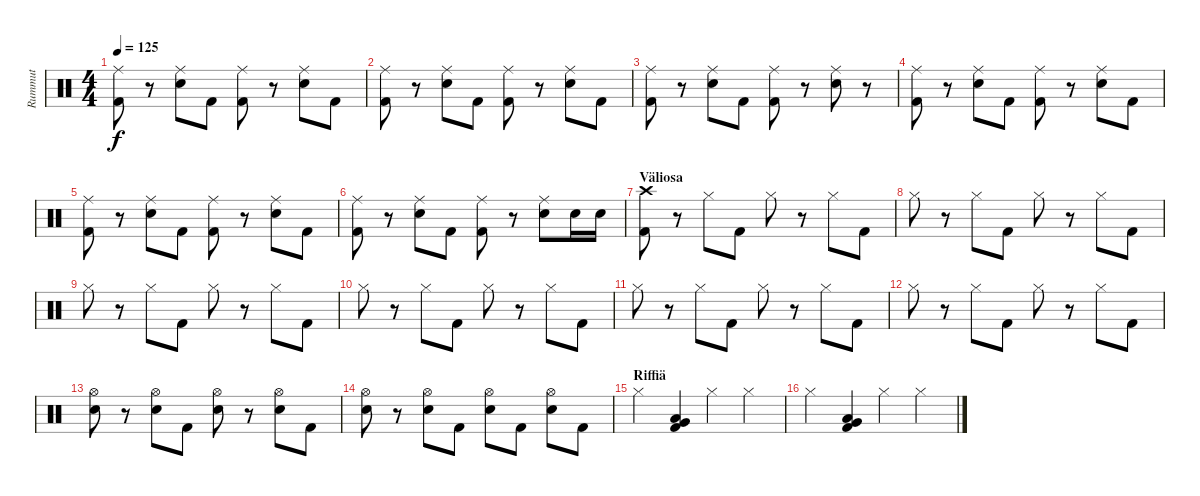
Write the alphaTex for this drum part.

\track ("Rummut" "Rummut") {instrument percussion}
\staff {score}
\articulation defaults
\ts (4 4)
\tempo 125
\clef neutral
\ks c
("Ride (middle)" "Kick (hit) 2").8{dy f} r.8 ("Ride (middle)" "Snare (hit) 2").8 "Kick (hit) 2".8 ("Ride (middle)" "Kick (hit) 2").8 r.8 ("Ride (middle)" "Snare (hit) 2").8 "Kick (hit) 2".8 |
("Ride (middle)" "Kick (hit) 2").8 r.8 ("Ride (middle)" "Snare (hit) 2").8 "Kick (hit) 2".8 ("Ride (middle)" "Kick (hit) 2").8 r.8 ("Ride (middle)" "Snare (hit) 2").8 "Kick (hit) 2".8 |
("Ride (middle)" "Kick (hit) 2").8 r.8 ("Ride (middle)" "Snare (hit) 2").8 "Kick (hit) 2".8 ("Ride (middle)" "Kick (hit) 2").8 r.8 ("Ride (middle)" "Snare (hit) 2").8 r.8 |
("Ride (middle)" "Kick (hit) 2").8 r.8 ("Ride (middle)" "Snare (hit) 2").8 "Kick (hit) 2".8 ("Ride (middle)" "Kick (hit) 2").8 r.8 ("Ride (middle)" "Snare (hit) 2").8 "Kick (hit) 2".8 |
("Ride (middle)" "Kick (hit) 2").8 r.8 ("Ride (middle)" "Snare (hit) 2").8 "Kick (hit) 2".8 ("Ride (middle)" "Kick (hit) 2").8 r.8 ("Ride (middle)" "Snare (hit) 2").8 "Kick (hit) 2".8 |
("Ride (middle)" "Kick (hit) 2").8 r.8 ("Ride (middle)" "Snare (hit) 2").8 "Kick (hit) 2".8 ("Ride (middle)" "Kick (hit) 2").8 r.8 ("Ride (middle)" "Snare (hit) 2").8 "Snare (hit) 2".16 "Snare (hit) 2".16 |
\section ("" "Väliosa")
("Crash high (hit)" "Kick (hit) 2").8 r.8 "Hi-Hat (closed)".8 "Kick (hit) 2".8 "Hi-Hat (closed)".8 r.8 "Hi-Hat (closed)".8 "Kick (hit) 2".8 |
"Hi-Hat (closed)".8 r.8 "Hi-Hat (closed)".8 "Kick (hit) 2".8 "Hi-Hat (closed)".8 r.8 "Hi-Hat (closed)".8 "Kick (hit) 2".8 |
"Hi-Hat (closed)".8 r.8 "Hi-Hat (closed)".8 "Kick (hit) 2".8 "Hi-Hat (closed)".8 r.8 "Hi-Hat (closed)".8 "Kick (hit) 2".8 |
"Hi-Hat (closed)".8 r.8 "Hi-Hat (closed)".8 "Kick (hit) 2".8 "Hi-Hat (closed)".8 r.8 "Hi-Hat (closed)".8 "Kick (hit) 2".8 |
"Hi-Hat (closed)".8 r.8 "Hi-Hat (closed)".8 "Kick (hit) 2".8 "Hi-Hat (closed)".8 r.8 "Hi-Hat (closed)".8 "Kick (hit) 2".8 |
"Hi-Hat (closed)".8 r.8 "Hi-Hat (closed)".8 "Kick (hit) 2".8 "Hi-Hat (closed)".8 r.8 "Hi-Hat (closed)".8 "Kick (hit) 2".8 |
("Hi-Hat (open)" "Snare (hit) 2").8 r.8 ("Hi-Hat (open)" "Snare (hit) 2").8 "Kick (hit) 2".8 ("Hi-Hat (open)" "Snare (hit) 2").8 r.8 ("Hi-Hat (open)" "Snare (hit) 2").8 "Kick (hit) 2".8 |
("Hi-Hat (open)" "Snare (hit) 2").8 r.8 ("Hi-Hat (open)" "Snare (hit) 2").8 "Kick (hit) 2".8 ("Hi-Hat (open)" "Snare (hit) 2").8 "Kick (hit) 2".8 ("Hi-Hat (open)" "Snare (hit) 2").8 "Kick (hit) 2".8 |
\section ("" "Riffiä")
"Hi-Hat (closed)".4 ("Very Low Tom (hit)" "Low Tom (hit)" "Kick (hit) 2").4 "Hi-Hat (closed)".4 "Hi-Hat (closed)".4 |
"Hi-Hat (closed)".4 ("Very Low Tom (hit)" "Low Tom (hit)" "Kick (hit) 2").4 "Hi-Hat (closed)".4 "Hi-Hat (closed)".4
